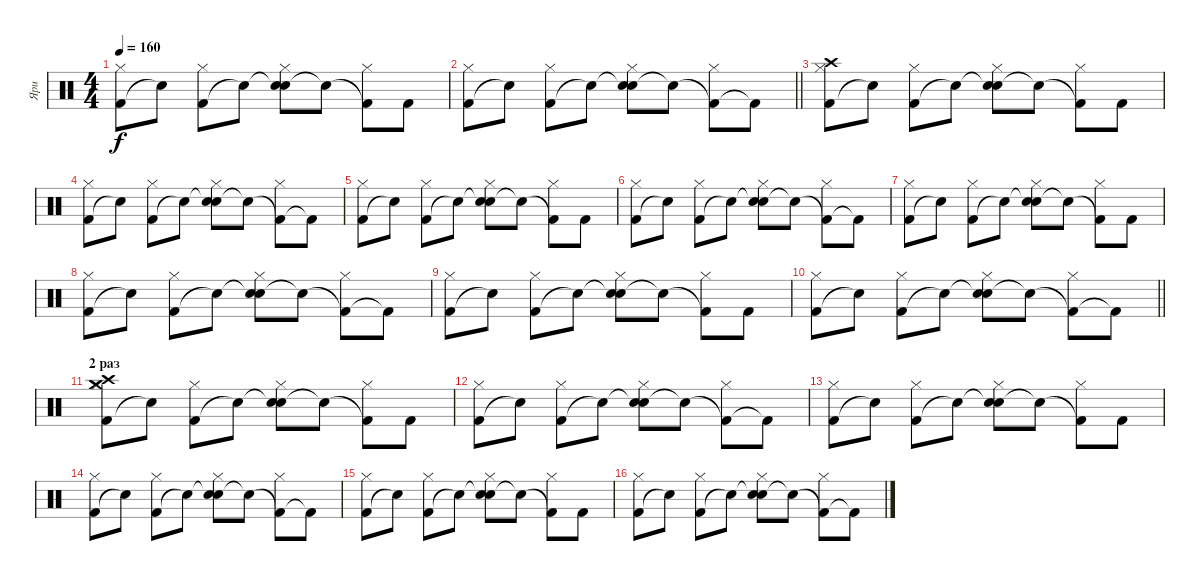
\track ("Яри" "Яри") {instrument percussion}
\staff {score}
\articulation defaults
\ts (4 4)
\tempo 160
\clef neutral
\ks c
("Kick (hit) 2" "Hi-Hat (closed)").8{dy f} "Snare (hit)"{t}.8 ("Kick (hit) 2" "Hi-Hat (closed)").8 "Snare (hit)"{t}.8 ("Snare (hit)"{t} "Hi-Hat (closed)" "Snare (hit) 2").8 "Snare (hit)"{t}.8 ("Kick (hit) 2"{t} "Hi-Hat (closed)").8 "Kick (hit) 2".8 |
\barLineRight lightlight
("Kick (hit) 2" "Hi-Hat (closed)").8 "Snare (hit)"{t}.8 ("Kick (hit) 2" "Hi-Hat (closed)").8 "Snare (hit)"{t}.8 ("Snare (hit)"{t} "Hi-Hat (closed)" "Snare (hit) 2").8 "Snare (hit)"{t}.8 ("Kick (hit) 2"{t} "Hi-Hat (closed)").8 "Kick (hit) 2"{t}.8 |
("Kick (hit) 2" "Hi-Hat (closed)" "Crash high (hit)").8 "Snare (hit)"{t}.8 ("Kick (hit) 2" "Hi-Hat (closed)").8 "Snare (hit)"{t}.8 ("Snare (hit)"{t} "Hi-Hat (closed)" "Snare (hit) 2").8 "Snare (hit)"{t}.8 ("Kick (hit) 2"{t} "Hi-Hat (closed)").8 "Kick (hit) 2".8 |
("Kick (hit) 2" "Hi-Hat (closed)").8 "Snare (hit)"{t}.8 ("Kick (hit) 2" "Hi-Hat (closed)").8 "Snare (hit)"{t}.8 ("Snare (hit)"{t} "Hi-Hat (closed)" "Snare (hit) 2").8 "Snare (hit)"{t}.8 ("Kick (hit) 2"{t} "Hi-Hat (closed)").8 "Kick (hit) 2"{t}.8 |
("Kick (hit) 2" "Hi-Hat (closed)").8 "Snare (hit)"{t}.8 ("Kick (hit) 2" "Hi-Hat (closed)").8 "Snare (hit)"{t}.8 ("Snare (hit)"{t} "Hi-Hat (closed)" "Snare (hit) 2").8 "Snare (hit)"{t}.8 ("Kick (hit) 2"{t} "Hi-Hat (closed)").8 "Kick (hit) 2".8 |
("Kick (hit) 2" "Hi-Hat (closed)").8 "Snare (hit)"{t}.8 ("Kick (hit) 2" "Hi-Hat (closed)").8 "Snare (hit)"{t}.8 ("Snare (hit)"{t} "Hi-Hat (closed)" "Snare (hit) 2").8 "Snare (hit)"{t}.8 ("Kick (hit) 2"{t} "Hi-Hat (closed)").8 "Kick (hit) 2"{t}.8 |
("Kick (hit) 2" "Hi-Hat (closed)").8 "Snare (hit)"{t}.8 ("Kick (hit) 2" "Hi-Hat (closed)").8 "Snare (hit)"{t}.8 ("Snare (hit)"{t} "Hi-Hat (closed)" "Snare (hit) 2").8 "Snare (hit)"{t}.8 ("Kick (hit) 2"{t} "Hi-Hat (closed)").8 "Kick (hit) 2".8 |
("Kick (hit) 2" "Hi-Hat (closed)").8 "Snare (hit)"{t}.8 ("Kick (hit) 2" "Hi-Hat (closed)").8 "Snare (hit)"{t}.8 ("Snare (hit)"{t} "Hi-Hat (closed)" "Snare (hit) 2").8 "Snare (hit)"{t}.8 ("Kick (hit) 2"{t} "Hi-Hat (closed)").8 "Kick (hit) 2"{t}.8 |
("Kick (hit) 2" "Hi-Hat (closed)").8 "Snare (hit)"{t}.8 ("Kick (hit) 2" "Hi-Hat (closed)").8 "Snare (hit)"{t}.8 ("Snare (hit)"{t} "Hi-Hat (closed)" "Snare (hit) 2").8 "Snare (hit)"{t}.8 ("Kick (hit) 2"{t} "Hi-Hat (closed)").8 "Kick (hit) 2".8 |
\barLineRight lightlight
("Kick (hit) 2" "Hi-Hat (closed)").8 "Snare (hit)"{t}.8 ("Kick (hit) 2" "Hi-Hat (closed)").8 "Snare (hit)"{t}.8 ("Snare (hit)"{t} "Hi-Hat (closed)" "Snare (hit) 2").8 "Snare (hit)"{t}.8 ("Kick (hit) 2"{t} "Hi-Hat (closed)").8 "Kick (hit) 2"{t}.8 |
\section ("" "2 раз")
("Kick (hit) 2" "Hi-Hat (closed)" "Crash medium (hit)" "Crash high (hit)").8 "Snare (hit)"{t}.8 ("Kick (hit) 2" "Hi-Hat (closed)").8 "Snare (hit)"{t}.8 ("Snare (hit)"{t} "Hi-Hat (closed)" "Snare (hit) 2").8 "Snare (hit)"{t}.8 ("Kick (hit) 2"{t} "Hi-Hat (closed)").8 "Kick (hit) 2".8 |
("Kick (hit) 2" "Hi-Hat (closed)").8 "Snare (hit)"{t}.8 ("Kick (hit) 2" "Hi-Hat (closed)").8 "Snare (hit)"{t}.8 ("Snare (hit)"{t} "Hi-Hat (closed)" "Snare (hit) 2").8 "Snare (hit)"{t}.8 ("Kick (hit) 2"{t} "Hi-Hat (closed)").8 "Kick (hit) 2"{t}.8 |
("Kick (hit) 2" "Hi-Hat (closed)").8 "Snare (hit)"{t}.8 ("Kick (hit) 2" "Hi-Hat (closed)").8 "Snare (hit)"{t}.8 ("Snare (hit)"{t} "Hi-Hat (closed)" "Snare (hit) 2").8 "Snare (hit)"{t}.8 ("Kick (hit) 2"{t} "Hi-Hat (closed)").8 "Kick (hit) 2".8 |
("Kick (hit) 2" "Hi-Hat (closed)").8 "Snare (hit)"{t}.8 ("Kick (hit) 2" "Hi-Hat (closed)").8 "Snare (hit)"{t}.8 ("Snare (hit)"{t} "Hi-Hat (closed)" "Snare (hit) 2").8 "Snare (hit)"{t}.8 ("Kick (hit) 2"{t} "Hi-Hat (closed)").8 "Kick (hit) 2"{t}.8 |
("Kick (hit) 2" "Hi-Hat (closed)").8 "Snare (hit)"{t}.8 ("Kick (hit) 2" "Hi-Hat (closed)").8 "Snare (hit)"{t}.8 ("Snare (hit)"{t} "Hi-Hat (closed)" "Snare (hit) 2").8 "Snare (hit)"{t}.8 ("Kick (hit) 2"{t} "Hi-Hat (closed)").8 "Kick (hit) 2".8 |
("Kick (hit) 2" "Hi-Hat (closed)").8 "Snare (hit)"{t}.8 ("Kick (hit) 2" "Hi-Hat (closed)").8 "Snare (hit)"{t}.8 ("Snare (hit)"{t} "Hi-Hat (closed)" "Snare (hit) 2").8 "Snare (hit)"{t}.8 ("Kick (hit) 2"{t} "Hi-Hat (closed)").8 "Kick (hit) 2"{t}.8
